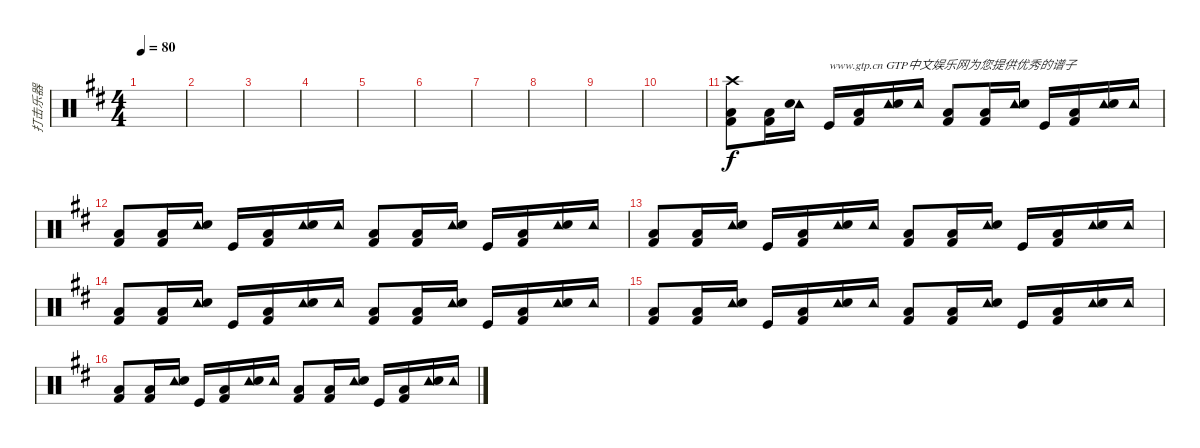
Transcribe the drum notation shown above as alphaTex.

\track ("打击乐器" "打击乐器") {instrument percussion}
\staff {score}
\articulation defaults
\ts (4 4)
\tempo 80
\clef neutral
\ks bminor
|
|
|
|
|
|
|
|
|
|
("Kick (hit) 2" "Low Floor Tom (hit)" "Crash high (hit)").8{dy f} ("Kick (hit) 2" "Low Floor Tom (hit)").16 ("Tambourine (hit)" "Electric Snare (hit)").16 "Kick (hit)".16{txt "www.gtp.cn GTP中文娱乐网为您提供优秀的谱子"} ("Kick (hit) 2" "Low Floor Tom (hit)").16 ("Tambourine (hit)" "Electric Snare (hit)").16 "Tambourine (hit)".16 ("Kick (hit) 2" "Low Floor Tom (hit)").8 ("Kick (hit) 2" "Low Floor Tom (hit)").16 ("Tambourine (hit)" "Electric Snare (hit)").16 "Kick (hit)".16 ("Kick (hit) 2" "Low Floor Tom (hit)").16 ("Tambourine (hit)" "Electric Snare (hit)").16 "Tambourine (hit)".16 |
("Kick (hit) 2" "Low Floor Tom (hit)").8 ("Kick (hit) 2" "Low Floor Tom (hit)").16 ("Tambourine (hit)" "Electric Snare (hit)").16 "Kick (hit)".16 ("Kick (hit) 2" "Low Floor Tom (hit)").16 ("Tambourine (hit)" "Electric Snare (hit)").16 "Tambourine (hit)".16 ("Kick (hit) 2" "Low Floor Tom (hit)").8 ("Kick (hit) 2" "Low Floor Tom (hit)").16 ("Tambourine (hit)" "Electric Snare (hit)").16 "Kick (hit)".16 ("Kick (hit) 2" "Low Floor Tom (hit)").16 ("Tambourine (hit)" "Electric Snare (hit)").16 "Tambourine (hit)".16 |
("Kick (hit) 2" "Low Floor Tom (hit)").8 ("Kick (hit) 2" "Low Floor Tom (hit)").16 ("Tambourine (hit)" "Electric Snare (hit)").16 "Kick (hit)".16 ("Kick (hit) 2" "Low Floor Tom (hit)").16 ("Tambourine (hit)" "Electric Snare (hit)").16 "Tambourine (hit)".16 ("Kick (hit) 2" "Low Floor Tom (hit)").8 ("Kick (hit) 2" "Low Floor Tom (hit)").16 ("Tambourine (hit)" "Electric Snare (hit)").16 "Kick (hit)".16 ("Kick (hit) 2" "Low Floor Tom (hit)").16 ("Tambourine (hit)" "Electric Snare (hit)").16 "Tambourine (hit)".16 |
("Kick (hit) 2" "Low Floor Tom (hit)").8 ("Kick (hit) 2" "Low Floor Tom (hit)").16 ("Tambourine (hit)" "Electric Snare (hit)").16 "Kick (hit)".16 ("Kick (hit) 2" "Low Floor Tom (hit)").16 ("Tambourine (hit)" "Electric Snare (hit)").16 "Tambourine (hit)".16 ("Kick (hit) 2" "Low Floor Tom (hit)").8 ("Kick (hit) 2" "Low Floor Tom (hit)").16 ("Tambourine (hit)" "Electric Snare (hit)").16 "Kick (hit)".16 ("Kick (hit) 2" "Low Floor Tom (hit)").16 ("Tambourine (hit)" "Electric Snare (hit)").16 "Tambourine (hit)".16 |
("Kick (hit) 2" "Low Floor Tom (hit)").8 ("Kick (hit) 2" "Low Floor Tom (hit)").16 ("Tambourine (hit)" "Electric Snare (hit)").16 "Kick (hit)".16 ("Kick (hit) 2" "Low Floor Tom (hit)").16 ("Tambourine (hit)" "Electric Snare (hit)").16 "Tambourine (hit)".16 ("Kick (hit) 2" "Low Floor Tom (hit)").8 ("Kick (hit) 2" "Low Floor Tom (hit)").16 ("Tambourine (hit)" "Electric Snare (hit)").16 "Kick (hit)".16 ("Kick (hit) 2" "Low Floor Tom (hit)").16 ("Tambourine (hit)" "Electric Snare (hit)").16 "Tambourine (hit)".16 |
("Kick (hit) 2" "Low Floor Tom (hit)").8 ("Kick (hit) 2" "Low Floor Tom (hit)").16 ("Tambourine (hit)" "Electric Snare (hit)").16 "Kick (hit)".16 ("Kick (hit) 2" "Low Floor Tom (hit)").16 ("Tambourine (hit)" "Electric Snare (hit)").16 "Tambourine (hit)".16 ("Kick (hit) 2" "Low Floor Tom (hit)").8 ("Kick (hit) 2" "Low Floor Tom (hit)").16 ("Tambourine (hit)" "Electric Snare (hit)").16 "Kick (hit)".16 ("Kick (hit) 2" "Low Floor Tom (hit)").16 ("Tambourine (hit)" "Electric Snare (hit)").16 "Tambourine (hit)".16
